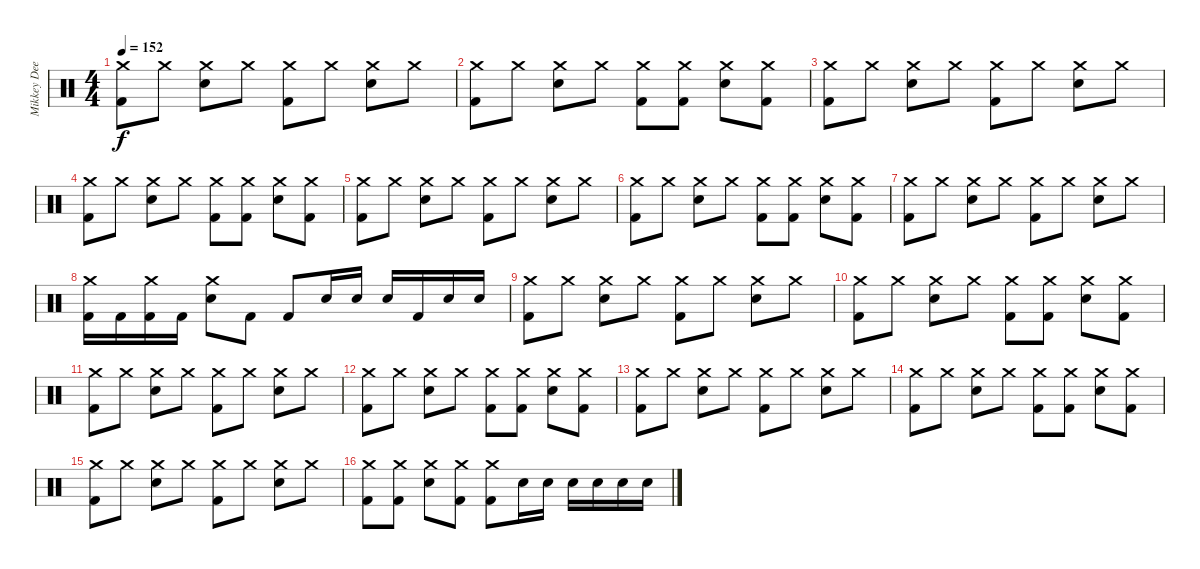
\track ("Mikkey Dee" "Mikkey Dee") {instrument percussion}
\staff {score}
\articulation defaults
\ts (4 4)
\tempo 152
\clef neutral
\ks c
("Crash medium (hit)" "Kick (hit) 2").8{dy f} "Crash medium (hit)".8 ("Crash medium (hit)" "Snare (hit) 2").8 "Crash medium (hit)".8 ("Crash medium (hit)" "Kick (hit) 2").8 "Crash medium (hit)".8 ("Crash medium (hit)" "Snare (hit) 2").8 "Crash medium (hit)".8 |
("Crash medium (hit)" "Kick (hit) 2").8 "Crash medium (hit)".8 ("Crash medium (hit)" "Snare (hit) 2").8 "Crash medium (hit)".8 ("Crash medium (hit)" "Kick (hit) 2").8 ("Crash medium (hit)" "Kick (hit) 2").8 ("Crash medium (hit)" "Snare (hit) 2").8 ("Crash medium (hit)" "Kick (hit) 2").8 |
("Crash medium (hit)" "Kick (hit) 2").8 "Crash medium (hit)".8 ("Crash medium (hit)" "Snare (hit) 2").8 "Crash medium (hit)".8 ("Crash medium (hit)" "Kick (hit) 2").8 "Crash medium (hit)".8 ("Crash medium (hit)" "Snare (hit) 2").8 "Crash medium (hit)".8 |
("Crash medium (hit)" "Kick (hit) 2").8 "Crash medium (hit)".8 ("Crash medium (hit)" "Snare (hit) 2").8 "Crash medium (hit)".8 ("Crash medium (hit)" "Kick (hit) 2").8 ("Crash medium (hit)" "Kick (hit) 2").8 ("Crash medium (hit)" "Snare (hit) 2").8 ("Crash medium (hit)" "Kick (hit) 2").8 |
("Crash medium (hit)" "Kick (hit) 2").8 "Crash medium (hit)".8 ("Crash medium (hit)" "Snare (hit) 2").8 "Crash medium (hit)".8 ("Crash medium (hit)" "Kick (hit) 2").8 "Crash medium (hit)".8 ("Crash medium (hit)" "Snare (hit) 2").8 "Crash medium (hit)".8 |
("Crash medium (hit)" "Kick (hit) 2").8 "Crash medium (hit)".8 ("Crash medium (hit)" "Snare (hit) 2").8 "Crash medium (hit)".8 ("Crash medium (hit)" "Kick (hit) 2").8 ("Crash medium (hit)" "Kick (hit) 2").8 ("Crash medium (hit)" "Snare (hit) 2").8 ("Crash medium (hit)" "Kick (hit) 2").8 |
("Crash medium (hit)" "Kick (hit) 2").8 "Crash medium (hit)".8 ("Crash medium (hit)" "Snare (hit) 2").8 "Crash medium (hit)".8 ("Crash medium (hit)" "Kick (hit) 2").8 "Crash medium (hit)".8 ("Crash medium (hit)" "Snare (hit) 2").8 "Crash medium (hit)".8 |
("Crash medium (hit)" "Kick (hit) 2").16 "Kick (hit) 2".16 ("Crash medium (hit)" "Kick (hit) 2").16 "Kick (hit) 2".16 ("Crash medium (hit)" "Snare (hit) 2").8 "Kick (hit) 2".8 "Kick (hit) 2".8 "Snare (hit) 2".16 "Snare (hit) 2".16 "Snare (hit) 2".16 "Kick (hit) 2".16 "Snare (hit) 2".16 "Snare (hit) 2".16 |
("Crash medium (hit)" "Kick (hit) 2").8 "Crash medium (hit)".8 ("Crash medium (hit)" "Snare (hit) 2").8 "Crash medium (hit)".8 ("Crash medium (hit)" "Kick (hit) 2").8 "Crash medium (hit)".8 ("Crash medium (hit)" "Snare (hit) 2").8 "Crash medium (hit)".8 |
("Crash medium (hit)" "Kick (hit) 2").8 "Crash medium (hit)".8 ("Crash medium (hit)" "Snare (hit) 2").8 "Crash medium (hit)".8 ("Crash medium (hit)" "Kick (hit) 2").8 ("Crash medium (hit)" "Kick (hit) 2").8 ("Crash medium (hit)" "Snare (hit) 2").8 ("Crash medium (hit)" "Kick (hit) 2").8 |
("Crash medium (hit)" "Kick (hit) 2").8 "Crash medium (hit)".8 ("Crash medium (hit)" "Snare (hit) 2").8 "Crash medium (hit)".8 ("Crash medium (hit)" "Kick (hit) 2").8 "Crash medium (hit)".8 ("Crash medium (hit)" "Snare (hit) 2").8 "Crash medium (hit)".8 |
("Crash medium (hit)" "Kick (hit) 2").8 "Crash medium (hit)".8 ("Crash medium (hit)" "Snare (hit) 2").8 "Crash medium (hit)".8 ("Crash medium (hit)" "Kick (hit) 2").8 ("Crash medium (hit)" "Kick (hit) 2").8 ("Crash medium (hit)" "Snare (hit) 2").8 ("Crash medium (hit)" "Kick (hit) 2").8 |
("Crash medium (hit)" "Kick (hit) 2").8 "Crash medium (hit)".8 ("Crash medium (hit)" "Snare (hit) 2").8 "Crash medium (hit)".8 ("Crash medium (hit)" "Kick (hit) 2").8 "Crash medium (hit)".8 ("Crash medium (hit)" "Snare (hit) 2").8 "Crash medium (hit)".8 |
("Crash medium (hit)" "Kick (hit) 2").8 "Crash medium (hit)".8 ("Crash medium (hit)" "Snare (hit) 2").8 "Crash medium (hit)".8 ("Crash medium (hit)" "Kick (hit) 2").8 ("Crash medium (hit)" "Kick (hit) 2").8 ("Crash medium (hit)" "Snare (hit) 2").8 ("Crash medium (hit)" "Kick (hit) 2").8 |
("Crash medium (hit)" "Kick (hit) 2").8 "Crash medium (hit)".8 ("Crash medium (hit)" "Snare (hit) 2").8 "Crash medium (hit)".8 ("Crash medium (hit)" "Kick (hit) 2").8 "Crash medium (hit)".8 ("Crash medium (hit)" "Snare (hit) 2").8 "Crash medium (hit)".8 |
("Crash medium (hit)" "Kick (hit) 2").8 ("Crash medium (hit)" "Kick (hit) 2").8 ("Crash medium (hit)" "Snare (hit) 2").8 ("Crash medium (hit)" "Kick (hit) 2").8 ("Crash medium (hit)" "Kick (hit) 2").8 "Snare (hit) 2".16 "Snare (hit) 2".16 "Snare (hit) 2".16 "Snare (hit) 2".16 "Snare (hit) 2".16 "Snare (hit) 2".16
